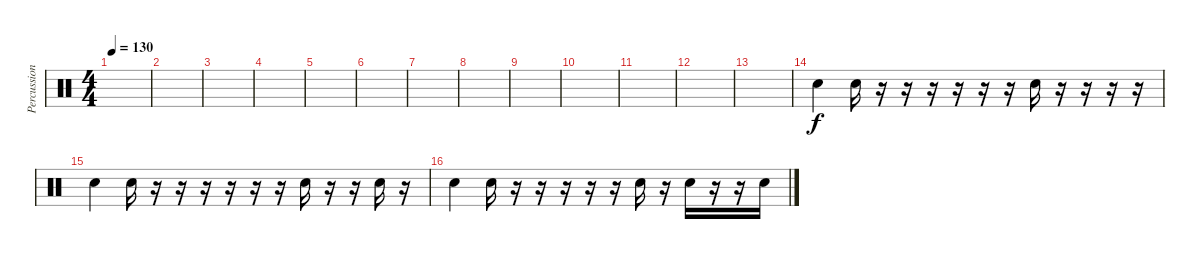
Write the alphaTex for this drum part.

\track ("Percussion" "Percussion") {instrument percussion}
\staff {score}
\articulation defaults
\ts (4 4)
\tempo 130
\clef neutral
\ks c
|
|
|
|
|
|
|
|
|
|
|
|
|
"Snare (hit) 2".4 "Snare (hit) 2".16 r.16 r.16 r.16 r.16 r.16 r.16 "Hand Clap (hit)".16 r.16 r.16 r.16 r.16 |
"Snare (hit) 2".4 "Snare (hit) 2".16 r.16 r.16 r.16 r.16 r.16 r.16 "Hand Clap (hit)".16 r.16 r.16 "Snare (hit) 2".16 r.16 |
"Snare (hit) 2".4 "Snare (hit) 2".16 r.16 r.16 r.16 r.16 r.16 "Snare (hit) 2".16 r.16 "Snare (hit) 2".16 r.16 r.16 "Snare (hit) 2".16
